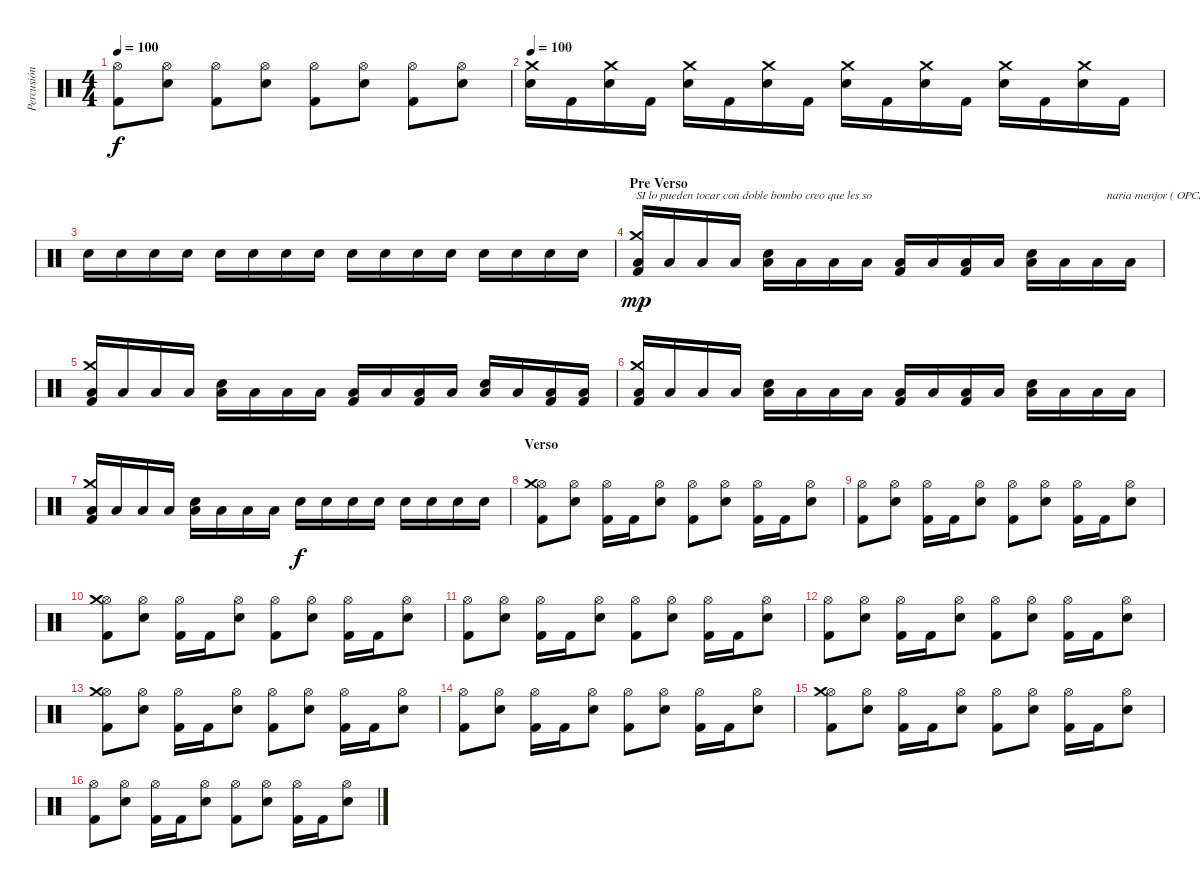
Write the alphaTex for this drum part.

\track ("Percusión" "Percusión") {instrument percussion}
\staff {score}
\articulation defaults
\ts (4 4)
\tempo 100
\clef neutral
\ks c
("Kick (hit) 2" "Hi-Hat (open)").8{dy f} ("Hi-Hat (open)" "Snare (hit) 2").8 ("Kick (hit) 2" "Hi-Hat (open)").8 ("Hi-Hat (open)" "Snare (hit) 2").8 ("Kick (hit) 2" "Hi-Hat (open)").8 ("Hi-Hat (open)" "Snare (hit) 2").8 ("Kick (hit) 2" "Hi-Hat (open)").8 ("Hi-Hat (open)" "Snare (hit) 2").8 |
\tempo 100
("Crash medium (hit)" "Snare (hit) 2").16 "Kick (hit) 2".16 ("Crash medium (hit)" "Snare (hit) 2").16 "Kick (hit) 2".16 ("Crash medium (hit)" "Snare (hit) 2").16 "Kick (hit) 2".16 ("Crash medium (hit)" "Snare (hit) 2").16 "Kick (hit) 2".16 ("Crash medium (hit)" "Snare (hit) 2").16 "Kick (hit) 2".16 ("Crash medium (hit)" "Snare (hit) 2").16 "Kick (hit) 2".16 ("Crash medium (hit)" "Snare (hit) 2").16 "Kick (hit) 2".16 ("Crash medium (hit)" "Snare (hit) 2").16 "Kick (hit) 2".16 |
"Snare (hit) 2".16 "Snare (hit) 2".16 "Snare (hit) 2".16 "Snare (hit) 2".16 "Snare (hit) 2".16 "Snare (hit) 2".16 "Snare (hit) 2".16 "Snare (hit) 2".16 "Snare (hit) 2".16 "Snare (hit) 2".16 "Snare (hit) 2".16 "Snare (hit) 2".16 "Snare (hit) 2".16 "Snare (hit) 2".16 "Snare (hit) 2".16 "Snare (hit) 2".16 |
\section ("" "Pre Verso")
("Kick (hit) 2" "Crash medium (hit)" "Low Floor Tom (hit)").16{txt "SI lo pueden tocar con doble bombo creo que les so" dy mp} "Low Floor Tom (hit)".16 "Low Floor Tom (hit)".16 "Low Floor Tom (hit)".16 ("Snare (hit) 2" "Low Floor Tom (hit)").16 "Low Floor Tom (hit)".16 "Low Floor Tom (hit)".16 "Low Floor Tom (hit)".16 ("Kick (hit) 2" "Low Floor Tom (hit)").16 "Low Floor Tom (hit)".16 ("Kick (hit) 2" "Low Floor Tom (hit)").16 "Low Floor Tom (hit)".16 ("Snare (hit) 2" "Low Floor Tom (hit)").16 "Low Floor Tom (hit)".16 "Low Floor Tom (hit)".16{txt "   naria menjor ( OPCIONAL)"} "Low Floor Tom (hit)".16 |
("Kick (hit) 2" "Crash medium (hit)" "Low Floor Tom (hit)").16 "Low Floor Tom (hit)".16 "Low Floor Tom (hit)".16 "Low Floor Tom (hit)".16 ("Snare (hit) 2" "Low Floor Tom (hit)").16 "Low Floor Tom (hit)".16 "Low Floor Tom (hit)".16 "Low Floor Tom (hit)".16 ("Kick (hit) 2" "Low Floor Tom (hit)").16 "Low Floor Tom (hit)".16 ("Kick (hit) 2" "Low Floor Tom (hit)").16 "Low Floor Tom (hit)".16 ("Snare (hit) 2" "Low Floor Tom (hit)").16 "Low Floor Tom (hit)".16 ("Kick (hit) 2" "Low Floor Tom (hit)").16 ("Kick (hit) 2" "Low Floor Tom (hit)").16 |
("Kick (hit) 2" "Crash medium (hit)" "Low Floor Tom (hit)").16 "Low Floor Tom (hit)".16 "Low Floor Tom (hit)".16 "Low Floor Tom (hit)".16 ("Snare (hit) 2" "Low Floor Tom (hit)").16 "Low Floor Tom (hit)".16 "Low Floor Tom (hit)".16 "Low Floor Tom (hit)".16 ("Kick (hit) 2" "Low Floor Tom (hit)").16 "Low Floor Tom (hit)".16 ("Kick (hit) 2" "Low Floor Tom (hit)").16 "Low Floor Tom (hit)".16 ("Snare (hit) 2" "Low Floor Tom (hit)").16 "Low Floor Tom (hit)".16 "Low Floor Tom (hit)".16 "Low Floor Tom (hit)".16 |
("Kick (hit) 2" "Crash medium (hit)" "Low Floor Tom (hit)").16 "Low Floor Tom (hit)".16 "Low Floor Tom (hit)".16 "Low Floor Tom (hit)".16 ("Snare (hit) 2" "Low Floor Tom (hit)").16 "Low Floor Tom (hit)".16 "Low Floor Tom (hit)".16 "Low Floor Tom (hit)".16 "Snare (hit) 2".16{dy f} "Snare (hit) 2".16 "Snare (hit) 2".16 "Snare (hit) 2".16 "Snare (hit) 2".16 "Snare (hit) 2".16 "Snare (hit) 2".16 "Snare (hit) 2".16 |
\section ("" "Verso ")
("Kick (hit) 2" "Hi-Hat (open)" "Crash medium (hit)").8 ("Snare (hit) 2" "Hi-Hat (open)").8 ("Kick (hit) 2" "Hi-Hat (open)").16 "Kick (hit) 2".16 ("Snare (hit) 2" "Hi-Hat (open)").8 ("Kick (hit) 2" "Hi-Hat (open)").8 ("Snare (hit) 2" "Hi-Hat (open)").8 ("Kick (hit) 2" "Hi-Hat (open)").16 "Kick (hit) 2".16 ("Snare (hit) 2" "Hi-Hat (open)").8 |
("Kick (hit) 2" "Hi-Hat (open)").8 ("Snare (hit) 2" "Hi-Hat (open)").8 ("Kick (hit) 2" "Hi-Hat (open)").16 "Kick (hit) 2".16 ("Snare (hit) 2" "Hi-Hat (open)").8 ("Kick (hit) 2" "Hi-Hat (open)").8 ("Snare (hit) 2" "Hi-Hat (open)").8 ("Kick (hit) 2" "Hi-Hat (open)").16 "Kick (hit) 2".16 ("Snare (hit) 2" "Hi-Hat (open)").8 |
("Kick (hit) 2" "Hi-Hat (open)" "Crash medium (hit)").8 ("Snare (hit) 2" "Hi-Hat (open)").8 ("Kick (hit) 2" "Hi-Hat (open)").16 "Kick (hit) 2".16 ("Snare (hit) 2" "Hi-Hat (open)").8 ("Kick (hit) 2" "Hi-Hat (open)").8 ("Snare (hit) 2" "Hi-Hat (open)").8 ("Kick (hit) 2" "Hi-Hat (open)").16 "Kick (hit) 2".16 ("Snare (hit) 2" "Hi-Hat (open)").8 |
("Kick (hit) 2" "Hi-Hat (open)").8 ("Snare (hit) 2" "Hi-Hat (open)").8 ("Kick (hit) 2" "Hi-Hat (open)").16 "Kick (hit) 2".16 ("Snare (hit) 2" "Hi-Hat (open)").8 ("Kick (hit) 2" "Hi-Hat (open)").8 ("Snare (hit) 2" "Hi-Hat (open)").8 ("Kick (hit) 2" "Hi-Hat (open)").16 "Kick (hit) 2".16 ("Snare (hit) 2" "Hi-Hat (open)").8 |
("Kick (hit) 2" "Hi-Hat (open)").8 ("Snare (hit) 2" "Hi-Hat (open)").8 ("Kick (hit) 2" "Hi-Hat (open)").16 "Kick (hit) 2".16 ("Snare (hit) 2" "Hi-Hat (open)").8 ("Kick (hit) 2" "Hi-Hat (open)").8 ("Snare (hit) 2" "Hi-Hat (open)").8 ("Kick (hit) 2" "Hi-Hat (open)").16 "Kick (hit) 2".16 ("Snare (hit) 2" "Hi-Hat (open)").8 |
("Kick (hit) 2" "Hi-Hat (open)" "Crash medium (hit)").8 ("Snare (hit) 2" "Hi-Hat (open)").8 ("Kick (hit) 2" "Hi-Hat (open)").16 "Kick (hit) 2".16 ("Snare (hit) 2" "Hi-Hat (open)").8 ("Kick (hit) 2" "Hi-Hat (open)").8 ("Snare (hit) 2" "Hi-Hat (open)").8 ("Kick (hit) 2" "Hi-Hat (open)").16 "Kick (hit) 2".16 ("Snare (hit) 2" "Hi-Hat (open)").8 |
("Kick (hit) 2" "Hi-Hat (open)").8 ("Snare (hit) 2" "Hi-Hat (open)").8 ("Kick (hit) 2" "Hi-Hat (open)").16 "Kick (hit) 2".16 ("Snare (hit) 2" "Hi-Hat (open)").8 ("Kick (hit) 2" "Hi-Hat (open)").8 ("Snare (hit) 2" "Hi-Hat (open)").8 ("Kick (hit) 2" "Hi-Hat (open)").16 "Kick (hit) 2".16 ("Snare (hit) 2" "Hi-Hat (open)").8 |
("Kick (hit) 2" "Hi-Hat (open)" "Crash medium (hit)").8 ("Snare (hit) 2" "Hi-Hat (open)").8 ("Kick (hit) 2" "Hi-Hat (open)").16 "Kick (hit) 2".16 ("Snare (hit) 2" "Hi-Hat (open)").8 ("Kick (hit) 2" "Hi-Hat (open)").8 ("Snare (hit) 2" "Hi-Hat (open)").8 ("Kick (hit) 2" "Hi-Hat (open)").16 "Kick (hit) 2".16 ("Snare (hit) 2" "Hi-Hat (open)").8 |
("Kick (hit) 2" "Hi-Hat (open)").8 ("Snare (hit) 2" "Hi-Hat (open)").8 ("Kick (hit) 2" "Hi-Hat (open)").16 "Kick (hit) 2".16 ("Snare (hit) 2" "Hi-Hat (open)").8 ("Kick (hit) 2" "Hi-Hat (open)").8 ("Snare (hit) 2" "Hi-Hat (open)").8 ("Kick (hit) 2" "Hi-Hat (open)").16 "Kick (hit) 2".16 ("Snare (hit) 2" "Hi-Hat (open)").8
